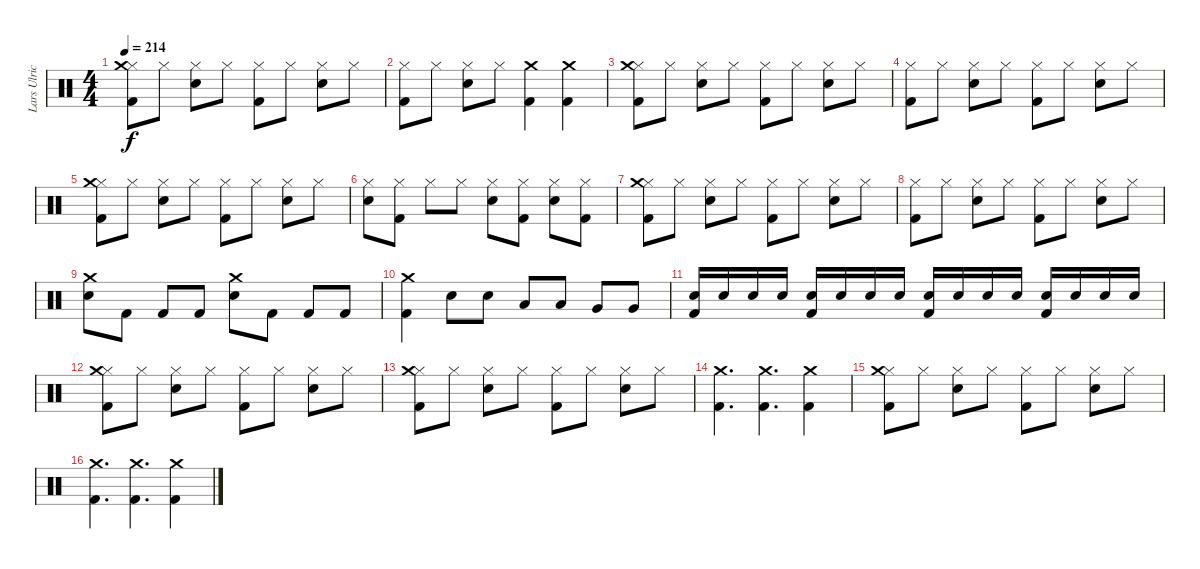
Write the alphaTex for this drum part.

\track ("Lars Ulrich" "Lars Ulric") {instrument percussion}
\staff {score}
\articulation defaults
\ts (4 4)
\tempo 214
\clef neutral
\ks c
("Hi-Hat (closed)" "Kick (hit) 2" "Crash medium (hit)").8{dy f} "Hi-Hat (closed)".8 ("Hi-Hat (closed)" "Snare (hit) 2").8 "Hi-Hat (closed)".8 ("Hi-Hat (closed)" "Kick (hit) 2").8 "Hi-Hat (closed)".8 ("Hi-Hat (closed)" "Snare (hit) 2").8 "Hi-Hat (closed)".8 |
("Hi-Hat (closed)" "Kick (hit) 2").8 "Hi-Hat (closed)".8 ("Hi-Hat (closed)" "Snare (hit) 2").8 "Hi-Hat (closed)".8 ("Kick (hit) 2" "Crash medium (hit)").4 ("Kick (hit) 2" "Crash medium (hit)").4 |
("Hi-Hat (closed)" "Kick (hit) 2" "Crash medium (hit)").8 "Hi-Hat (closed)".8 ("Hi-Hat (closed)" "Snare (hit) 2").8 "Hi-Hat (closed)".8 ("Hi-Hat (closed)" "Kick (hit) 2").8 "Hi-Hat (closed)".8 ("Hi-Hat (closed)" "Snare (hit) 2").8 "Hi-Hat (closed)".8 |
("Hi-Hat (closed)" "Kick (hit) 2").8 "Hi-Hat (closed)".8 ("Hi-Hat (closed)" "Snare (hit) 2").8 "Hi-Hat (closed)".8 ("Hi-Hat (closed)" "Kick (hit) 2").8 "Hi-Hat (closed)".8 ("Hi-Hat (closed)" "Snare (hit) 2").8 "Hi-Hat (closed)".8 |
("Hi-Hat (closed)" "Kick (hit) 2" "Crash medium (hit)").8 "Hi-Hat (closed)".8 ("Hi-Hat (closed)" "Snare (hit) 2").8 "Hi-Hat (closed)".8 ("Hi-Hat (closed)" "Kick (hit) 2").8 "Hi-Hat (closed)".8 ("Hi-Hat (closed)" "Snare (hit) 2").8 "Hi-Hat (closed)".8 |
("Hi-Hat (closed)" "Snare (hit) 2").8 ("Hi-Hat (closed)" "Kick (hit) 2").8 "Hi-Hat (closed)".8 "Hi-Hat (closed)".8 ("Hi-Hat (closed)" "Snare (hit) 2").8 ("Hi-Hat (closed)" "Kick (hit) 2").8 ("Hi-Hat (closed)" "Snare (hit) 2").8 ("Hi-Hat (closed)" "Kick (hit) 2").8 |
("Hi-Hat (closed)" "Kick (hit) 2" "Crash medium (hit)").8 "Hi-Hat (closed)".8 ("Hi-Hat (closed)" "Snare (hit) 2").8 "Hi-Hat (closed)".8 ("Hi-Hat (closed)" "Kick (hit) 2").8 "Hi-Hat (closed)".8 ("Hi-Hat (closed)" "Snare (hit) 2").8 "Hi-Hat (closed)".8 |
("Hi-Hat (closed)" "Kick (hit) 2").8 "Hi-Hat (closed)".8 ("Hi-Hat (closed)" "Snare (hit) 2").8 "Hi-Hat (closed)".8 ("Hi-Hat (closed)" "Kick (hit) 2").8 "Hi-Hat (closed)".8 ("Hi-Hat (closed)" "Snare (hit) 2").8 "Hi-Hat (closed)".8 |
("Snare (hit) 2" "Crash medium (hit)").8 "Kick (hit) 2".8 "Kick (hit) 2".8 "Kick (hit) 2".8 ("Snare (hit) 2" "Crash medium (hit)").8 "Kick (hit) 2".8 "Kick (hit) 2".8 "Kick (hit) 2".8 |
("Kick (hit) 2" "Crash medium (hit)").4 "Snare (hit) 2".8 "Snare (hit) 2".8 "Low Tom (hit)".8 "Low Tom (hit)".8 "Very Low Tom (hit)".8 "Very Low Tom (hit)".8 |
("Snare (hit) 2" "Kick (hit) 2").16{volume 7} "Snare (hit) 2".16 "Snare (hit) 2".16 "Snare (hit) 2".16 ("Snare (hit) 2" "Kick (hit) 2").16{volume 9} "Snare (hit) 2".16 "Snare (hit) 2".16 "Snare (hit) 2".16 ("Snare (hit) 2" "Kick (hit) 2").16{volume 11} "Snare (hit) 2".16 "Snare (hit) 2".16 "Snare (hit) 2".16 ("Snare (hit) 2" "Kick (hit) 2").16{volume 13} "Snare (hit) 2".16 "Snare (hit) 2".16 "Snare (hit) 2".16 |
("Hi-Hat (closed)" "Kick (hit) 2" "Crash medium (hit)").8 "Hi-Hat (closed)".8 ("Hi-Hat (closed)" "Snare (hit) 2").8 "Hi-Hat (closed)".8 ("Hi-Hat (closed)" "Kick (hit) 2").8 "Hi-Hat (closed)".8 ("Hi-Hat (closed)" "Snare (hit) 2").8 "Hi-Hat (closed)".8 |
("Hi-Hat (closed)" "Kick (hit) 2" "Crash medium (hit)").8 "Hi-Hat (closed)".8 ("Hi-Hat (closed)" "Snare (hit) 2").8 "Hi-Hat (closed)".8 ("Hi-Hat (closed)" "Kick (hit) 2").8 "Hi-Hat (closed)".8 ("Hi-Hat (closed)" "Snare (hit) 2").8 "Hi-Hat (closed)".8 |
("Kick (hit) 2" "Crash medium (hit)").4{d} ("Crash medium (hit)" "Kick (hit) 2").4{d} ("Kick (hit) 2" "Crash medium (hit)").4 |
("Hi-Hat (closed)" "Kick (hit) 2" "Crash medium (hit)").8 "Hi-Hat (closed)".8 ("Hi-Hat (closed)" "Snare (hit) 2").8 "Hi-Hat (closed)".8 ("Hi-Hat (closed)" "Kick (hit) 2").8 "Hi-Hat (closed)".8 ("Hi-Hat (closed)" "Snare (hit) 2").8 "Hi-Hat (closed)".8 |
("Kick (hit) 2" "Crash medium (hit)").4{d} ("Crash medium (hit)" "Kick (hit) 2").4{d} ("Kick (hit) 2" "Crash medium (hit)").4
